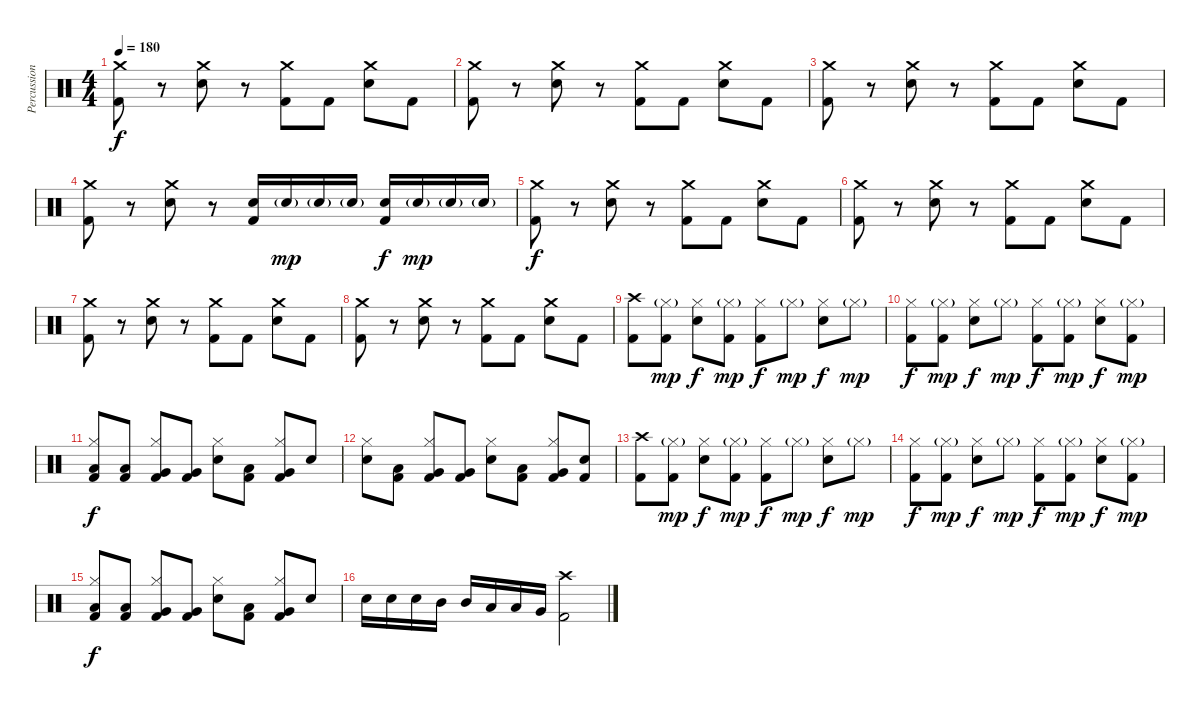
\track ("Percussion" "Percussion") {instrument percussion}
\staff {score}
\articulation defaults
\ts (4 4)
\tempo 180
\clef neutral
\ks c
("Crash medium (hit)" "Kick (hit) 2").8{dy f} r.8 ("Crash medium (hit)" "Electric Snare (hit)").8 r.8 ("Crash medium (hit)" "Kick (hit) 2").8 "Kick (hit) 2".8 ("Crash medium (hit)" "Electric Snare (hit)").8 "Kick (hit) 2".8 |
("Crash medium (hit)" "Kick (hit) 2").8 r.8 ("Crash medium (hit)" "Electric Snare (hit)").8 r.8 ("Crash medium (hit)" "Kick (hit) 2").8 "Kick (hit) 2".8 ("Crash medium (hit)" "Electric Snare (hit)").8 "Kick (hit) 2".8 |
("Crash medium (hit)" "Kick (hit) 2").8 r.8 ("Crash medium (hit)" "Electric Snare (hit)").8 r.8 ("Crash medium (hit)" "Kick (hit) 2").8 "Kick (hit) 2".8 ("Crash medium (hit)" "Electric Snare (hit)").8 "Kick (hit) 2".8 |
("Crash medium (hit)" "Kick (hit) 2").8 r.8 ("Crash medium (hit)" "Electric Snare (hit)").8 r.8 ("Electric Snare (hit)" "Kick (hit) 2").16 "Electric Snare (hit)"{g}.16{dy mp} "Electric Snare (hit)"{g}.16 "Electric Snare (hit)"{g}.16 ("Electric Snare (hit)" "Kick (hit) 2").16{dy f} "Electric Snare (hit)"{g}.16{dy mp} "Electric Snare (hit)"{g}.16 "Electric Snare (hit)"{g}.16 |
("Crash medium (hit)" "Kick (hit) 2").8{dy f} r.8 ("Crash medium (hit)" "Electric Snare (hit)").8 r.8 ("Crash medium (hit)" "Kick (hit) 2").8 "Kick (hit) 2".8 ("Crash medium (hit)" "Electric Snare (hit)").8 "Kick (hit) 2".8 |
("Crash medium (hit)" "Kick (hit) 2").8 r.8 ("Crash medium (hit)" "Electric Snare (hit)").8 r.8 ("Crash medium (hit)" "Kick (hit) 2").8 "Kick (hit) 2".8 ("Crash medium (hit)" "Electric Snare (hit)").8 "Kick (hit) 2".8 |
("Crash medium (hit)" "Kick (hit) 2").8 r.8 ("Crash medium (hit)" "Electric Snare (hit)").8 r.8 ("Crash medium (hit)" "Kick (hit) 2").8 "Kick (hit) 2".8 ("Crash medium (hit)" "Electric Snare (hit)").8 "Kick (hit) 2".8 |
("Crash medium (hit)" "Kick (hit) 2").8 r.8 ("Crash medium (hit)" "Electric Snare (hit)").8 r.8 ("Crash medium (hit)" "Kick (hit) 2").8 "Kick (hit) 2".8 ("Crash medium (hit)" "Electric Snare (hit)").8 "Kick (hit) 2".8 |
("Crash high (hit)" "Kick (hit) 2").8 ("Hi-Hat (closed)"{g} "Kick (hit) 2").8{dy mp} ("Hi-Hat (closed)" "Electric Snare (hit)").8{dy f} ("Hi-Hat (closed)"{g} "Kick (hit) 2").8{dy mp} ("Hi-Hat (closed)" "Kick (hit) 2").8{dy f} "Hi-Hat (closed)"{g}.8{dy mp} ("Hi-Hat (closed)" "Electric Snare (hit)").8{dy f} "Hi-Hat (closed)"{g}.8{dy mp} |
("Hi-Hat (closed)" "Kick (hit) 2").8{dy f} ("Hi-Hat (closed)"{g} "Kick (hit) 2").8{dy mp} ("Hi-Hat (closed)" "Electric Snare (hit)").8{dy f} "Hi-Hat (closed)"{g}.8{dy mp} ("Hi-Hat (closed)" "Kick (hit) 2").8{dy f} ("Hi-Hat (closed)"{g} "Kick (hit) 2").8{dy mp} ("Hi-Hat (closed)" "Electric Snare (hit)").8{dy f} ("Hi-Hat (closed)"{g} "Kick (hit) 2").8{dy mp} |
("Hi-Hat (closed)" "Low Tom (hit)" "Kick (hit) 2").8{dy f} ("Low Tom (hit)" "Kick (hit) 2").8 ("Hi-Hat (closed)" "Very Low Tom (hit)" "Kick (hit) 2").8 ("Very Low Tom (hit)" "Kick (hit) 2").8 ("Hi-Hat (closed)" "Electric Snare (hit)").8 ("Low Tom (hit)" "Kick (hit) 2").8 ("Hi-Hat (closed)" "Very Low Tom (hit)" "Kick (hit) 2").8 "Electric Snare (hit)".8 |
("Hi-Hat (closed)" "Electric Snare (hit)").8 ("Low Tom (hit)" "Kick (hit) 2").8 ("Hi-Hat (closed)" "Very Low Tom (hit)" "Kick (hit) 2").8 ("Very Low Tom (hit)" "Kick (hit) 2").8 ("Hi-Hat (closed)" "Electric Snare (hit)").8 ("Low Tom (hit)" "Kick (hit) 2").8 ("Hi-Hat (closed)" "Very Low Tom (hit)" "Kick (hit) 2").8 ("Electric Snare (hit)" "Kick (hit) 2").8 |
("Crash high (hit)" "Kick (hit) 2").8 ("Hi-Hat (closed)"{g} "Kick (hit) 2").8{dy mp} ("Hi-Hat (closed)" "Electric Snare (hit)").8{dy f} ("Hi-Hat (closed)"{g} "Kick (hit) 2").8{dy mp} ("Hi-Hat (closed)" "Kick (hit) 2").8{dy f} "Hi-Hat (closed)"{g}.8{dy mp} ("Hi-Hat (closed)" "Electric Snare (hit)").8{dy f} "Hi-Hat (closed)"{g}.8{dy mp} |
("Hi-Hat (closed)" "Kick (hit) 2").8{dy f} ("Hi-Hat (closed)"{g} "Kick (hit) 2").8{dy mp} ("Hi-Hat (closed)" "Electric Snare (hit)").8{dy f} "Hi-Hat (closed)"{g}.8{dy mp} ("Hi-Hat (closed)" "Kick (hit) 2").8{dy f} ("Hi-Hat (closed)"{g} "Kick (hit) 2").8{dy mp} ("Hi-Hat (closed)" "Electric Snare (hit)").8{dy f} ("Hi-Hat (closed)"{g} "Kick (hit) 2").8{dy mp} |
("Hi-Hat (closed)" "Low Tom (hit)" "Kick (hit) 2").8{dy f} ("Low Tom (hit)" "Kick (hit) 2").8 ("Hi-Hat (closed)" "Very Low Tom (hit)" "Kick (hit) 2").8 ("Very Low Tom (hit)" "Kick (hit) 2").8 ("Hi-Hat (closed)" "Electric Snare (hit)").8 ("Low Tom (hit)" "Kick (hit) 2").8 ("Hi-Hat (closed)" "Very Low Tom (hit)" "Kick (hit) 2").8 "Electric Snare (hit)".8 |
"Electric Snare (hit)".16 "Electric Snare (hit)".16 "Electric Snare (hit)".16 "Mid Tom (hit)".16 "Mid Tom (hit)".16 "Low Tom (hit)".16 "Low Tom (hit)".16 "Very Low Tom (hit)".16 ("Crash high (hit)" "Kick (hit) 2").2
